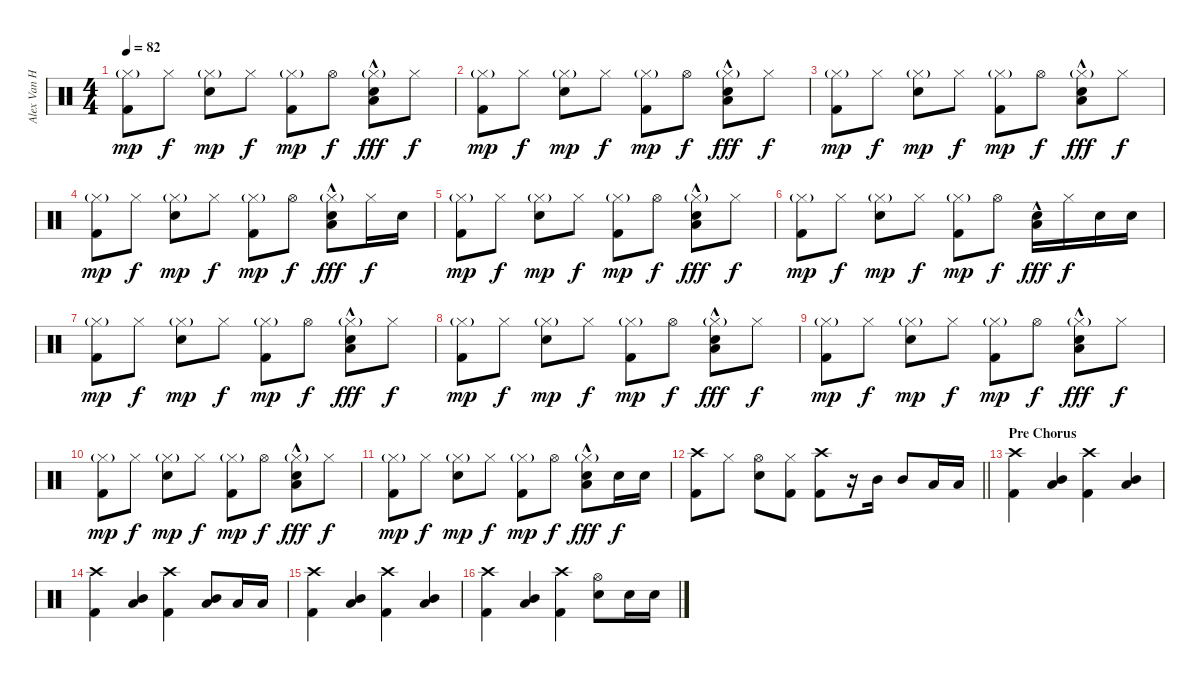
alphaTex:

\track ("Alex Van Halen" "Alex Van H") {instrument percussion}
\staff {score}
\articulation defaults
\ts (4 4)
\tempo 82
\clef neutral
\ks c
("Hi-Hat (closed)"{g} "Kick (hit) 2").8{dy mp} "Hi-Hat (closed)".8{dy f} ("Hi-Hat (closed)"{g} "Electric Snare (hit)").8{dy mp} "Hi-Hat (closed)".8{dy f} ("Hi-Hat (closed)"{g} "Kick (hit) 2").8{dy mp} "Hi-Hat (open)".8{dy f} ("Hi-Hat (closed)"{g} "Electric Snare (hit)" "Low Tom (hit)"{hac}).8{dy fff} "Hi-Hat (closed)".8{dy f} |
("Hi-Hat (closed)"{g} "Kick (hit) 2").8{dy mp} "Hi-Hat (closed)".8{dy f} ("Hi-Hat (closed)"{g} "Electric Snare (hit)").8{dy mp} "Hi-Hat (closed)".8{dy f} ("Hi-Hat (closed)"{g} "Kick (hit) 2").8{dy mp} "Hi-Hat (open)".8{dy f} ("Hi-Hat (closed)"{g} "Electric Snare (hit)" "Low Tom (hit)"{hac}).8{dy fff} "Hi-Hat (closed)".8{dy f} |
("Hi-Hat (closed)"{g} "Kick (hit) 2").8{dy mp} "Hi-Hat (closed)".8{dy f} ("Hi-Hat (closed)"{g} "Electric Snare (hit)").8{dy mp} "Hi-Hat (closed)".8{dy f} ("Hi-Hat (closed)"{g} "Kick (hit) 2").8{dy mp} "Hi-Hat (open)".8{dy f} ("Hi-Hat (closed)"{g} "Electric Snare (hit)" "Low Tom (hit)"{hac}).8{dy fff} "Hi-Hat (closed)".8{dy f} |
("Hi-Hat (closed)"{g} "Kick (hit) 2").8{dy mp} "Hi-Hat (closed)".8{dy f} ("Hi-Hat (closed)"{g} "Electric Snare (hit)").8{dy mp} "Hi-Hat (closed)".8{dy f} ("Hi-Hat (closed)"{g} "Kick (hit) 2").8{dy mp} "Hi-Hat (open)".8{dy f} ("Hi-Hat (closed)"{g} "Electric Snare (hit)" "Low Tom (hit)"{hac}).8{dy fff} "Hi-Hat (closed)".16{dy f} "Electric Snare (hit)".16 |
("Hi-Hat (closed)"{g} "Kick (hit) 2").8{dy mp} "Hi-Hat (closed)".8{dy f} ("Hi-Hat (closed)"{g} "Electric Snare (hit)").8{dy mp} "Hi-Hat (closed)".8{dy f} ("Hi-Hat (closed)"{g} "Kick (hit) 2").8{dy mp} "Hi-Hat (open)".8{dy f} ("Hi-Hat (closed)"{g} "Electric Snare (hit)" "Low Tom (hit)"{hac}).8{dy fff} "Hi-Hat (closed)".8{dy f} |
("Hi-Hat (closed)"{g} "Kick (hit) 2").8{dy mp} "Hi-Hat (closed)".8{dy f} ("Hi-Hat (closed)"{g} "Electric Snare (hit)").8{dy mp} "Hi-Hat (closed)".8{dy f} ("Hi-Hat (closed)"{g} "Kick (hit) 2").8{dy mp} "Hi-Hat (open)".8{dy f} ("Electric Snare (hit)" "Low Tom (hit)"{hac}).16{dy fff} "Hi-Hat (closed)".16{dy f} "Electric Snare (hit)".16 "Electric Snare (hit)".16 |
("Hi-Hat (closed)"{g} "Kick (hit) 2").8{dy mp} "Hi-Hat (closed)".8{dy f} ("Hi-Hat (closed)"{g} "Electric Snare (hit)").8{dy mp} "Hi-Hat (closed)".8{dy f} ("Hi-Hat (closed)"{g} "Kick (hit) 2").8{dy mp} "Hi-Hat (open)".8{dy f} ("Hi-Hat (closed)"{g} "Electric Snare (hit)" "Low Tom (hit)"{hac}).8{dy fff} "Hi-Hat (closed)".8{dy f} |
("Hi-Hat (closed)"{g} "Kick (hit) 2").8{dy mp} "Hi-Hat (closed)".8{dy f} ("Hi-Hat (closed)"{g} "Electric Snare (hit)").8{dy mp} "Hi-Hat (closed)".8{dy f} ("Hi-Hat (closed)"{g} "Kick (hit) 2").8{dy mp} "Hi-Hat (open)".8{dy f} ("Hi-Hat (closed)"{g} "Electric Snare (hit)" "Low Tom (hit)"{hac}).8{dy fff} "Hi-Hat (closed)".8{dy f} |
("Hi-Hat (closed)"{g} "Kick (hit) 2").8{dy mp} "Hi-Hat (closed)".8{dy f} ("Hi-Hat (closed)"{g} "Electric Snare (hit)").8{dy mp} "Hi-Hat (closed)".8{dy f} ("Hi-Hat (closed)"{g} "Kick (hit) 2").8{dy mp} "Hi-Hat (open)".8{dy f} ("Hi-Hat (closed)"{g} "Electric Snare (hit)" "Low Tom (hit)"{hac}).8{dy fff} "Hi-Hat (closed)".8{dy f} |
("Hi-Hat (closed)"{g} "Kick (hit) 2").8{dy mp} "Hi-Hat (closed)".8{dy f} ("Hi-Hat (closed)"{g} "Electric Snare (hit)").8{dy mp} "Hi-Hat (closed)".8{dy f} ("Hi-Hat (closed)"{g} "Kick (hit) 2").8{dy mp} "Hi-Hat (open)".8{dy f} ("Hi-Hat (closed)"{g} "Electric Snare (hit)" "Low Tom (hit)"{hac}).8{dy fff} "Hi-Hat (closed)".8{dy f} |
("Hi-Hat (closed)"{g} "Kick (hit) 2").8{dy mp} "Hi-Hat (closed)".8{dy f} ("Hi-Hat (closed)"{g} "Electric Snare (hit)").8{dy mp} "Hi-Hat (closed)".8{dy f} ("Hi-Hat (closed)"{g} "Kick (hit) 2").8{dy mp} "Hi-Hat (open)".8{dy f} ("Hi-Hat (closed)"{g} "Electric Snare (hit)" "Low Tom (hit)"{hac}).8{dy fff} "Electric Snare (hit)".16{dy f} "Electric Snare (hit)".16 |
\barLineRight lightlight
("Crash high (hit)" "Kick (hit) 2").8 "Hi-Hat (closed)".8 ("Hi-Hat (open)" "Electric Snare (hit)").8 ("Hi-Hat (closed)" "Kick (hit) 2").8 ("Crash high (hit)" "Kick (hit) 2").8 r.16 "Mid Tom (hit)".16 "Mid Tom (hit)".8 "Low Tom (hit)".16 "Low Tom (hit)".16 |
\section ("" "Pre Chorus")
("Crash high (hit)" "Kick (hit) 2").4 ("Mid Tom (hit)" "Low Tom (hit)").4 ("Crash high (hit)" "Kick (hit) 2").4 ("Mid Tom (hit)" "Low Tom (hit)").4 |
("Crash high (hit)" "Kick (hit) 2").4 ("Mid Tom (hit)" "Low Tom (hit)").4 ("Crash high (hit)" "Kick (hit) 2").4 ("Mid Tom (hit)" "Low Tom (hit)").8 "Low Tom (hit)".16 "Low Tom (hit)".16 |
("Crash high (hit)" "Kick (hit) 2").4 ("Mid Tom (hit)" "Low Tom (hit)").4 ("Crash high (hit)" "Kick (hit) 2").4 ("Mid Tom (hit)" "Low Tom (hit)").4 |
("Crash high (hit)" "Kick (hit) 2").4 ("Mid Tom (hit)" "Low Tom (hit)").4 ("Crash high (hit)" "Kick (hit) 2").4 ("Hi-Hat (open)" "Electric Snare (hit)").8 "Electric Snare (hit)".16 "Electric Snare (hit)".16
